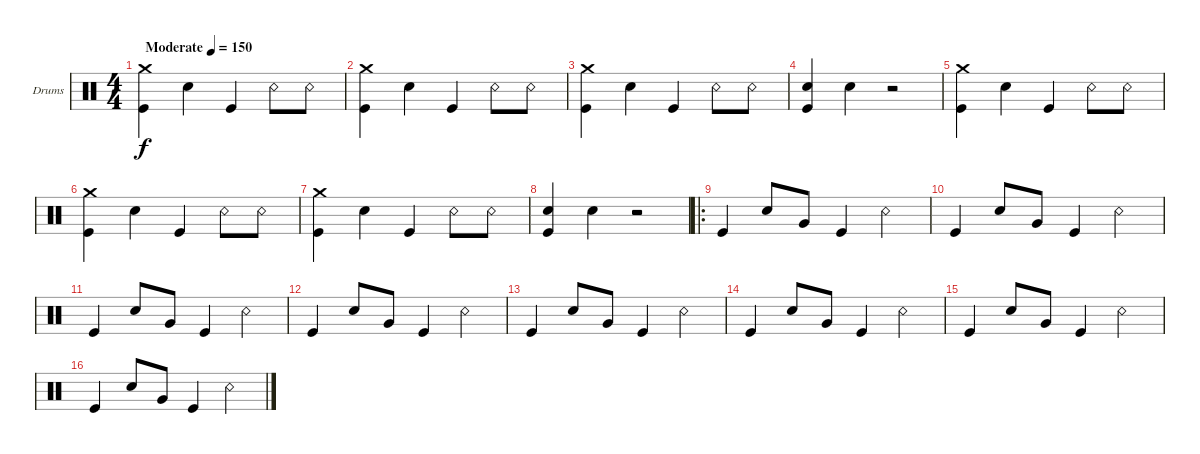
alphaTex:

\bracketExtendMode groupsimilarinstruments
\firstSystemTrackNameOrientation horizontal
\otherSystemsTrackNameOrientation horizontal
\track ("Drumkit" "Drums") {instrument percussion}
\staff {score}
\articulation defaults
\ts (4 4)
\beaming (8 2 2 2 2)
\tempo (150 "Moderate")
\clef neutral
\scale
0.474178
\ks c
("Kick (hit)" "Crash medium (hit)").4{dy f} "Snare (hit) 2".4 "Kick (hit)".4 "Snare (rim shot)".8 "Snare (rim shot)".8 |
\scale
0.262911 ("Kick (hit)" "Crash medium (hit)").4 "Snare (hit) 2".4 "Kick (hit)".4 "Snare (rim shot)".8 "Snare (rim shot)".8 |
\scale
0.262911 ("Kick (hit)" "Crash medium (hit)").4 "Snare (hit) 2".4 "Kick (hit)".4 "Snare (rim shot)".8 "Snare (rim shot)".8 |
\scale
0.333333 ("Kick (hit)" "Snare (hit) 2").4 "Snare (hit) 2".4 r.2 |
\scale
0.333333 ("Kick (hit)" "Crash medium (hit)").4 "Snare (hit) 2".4 "Kick (hit)".4 "Snare (rim shot)".8 "Snare (rim shot)".8 |
\scale
0.333333 ("Kick (hit)" "Crash medium (hit)").4 "Snare (hit) 2".4 "Kick (hit)".4 "Snare (rim shot)".8 "Snare (rim shot)".8 |
\scale
0.311111 ("Kick (hit)" "Crash medium (hit)").4 "Snare (hit) 2".4 "Kick (hit)".4 "Snare (rim shot)".8 "Snare (rim shot)".8 |
\scale
0.311111 ("Kick (hit)" "Snare (hit) 2").4 "Snare (hit) 2".4 r.2 |
\ro
\scale
0.377778 "Kick (hit)".4 "Snare (hit) 2".8 "Very Low Tom (hit)".8 "Kick (hit)".4 "Snare (rim shot)".4 |
\scale
0.333333 "Kick (hit)".4 "Snare (hit) 2".8 "Very Low Tom (hit)".8 "Kick (hit)".4 "Snare (rim shot)".4 |
\scale
0.333333 "Kick (hit)".4 "Snare (hit) 2".8 "Very Low Tom (hit)".8 "Kick (hit)".4 "Snare (rim shot)".4 |
\scale
0.333333 "Kick (hit)".4 "Snare (hit) 2".8 "Very Low Tom (hit)".8 "Kick (hit)".4 "Snare (rim shot)".4 |
\scale
0.333333 "Kick (hit)".4 "Snare (hit) 2".8 "Very Low Tom (hit)".8 "Kick (hit)".4 "Snare (rim shot)".4 |
\scale
0.333333 "Kick (hit)".4 "Snare (hit) 2".8 "Very Low Tom (hit)".8 "Kick (hit)".4 "Snare (rim shot)".4 |
\scale
0.333333 "Kick (hit)".4 "Snare (hit) 2".8 "Very Low Tom (hit)".8 "Kick (hit)".4 "Snare (rim shot)".4 |
\scale
0.333333 "Kick (hit)".4 "Snare (hit) 2".8 "Very Low Tom (hit)".8 "Kick (hit)".4 "Snare (rim shot)".4
